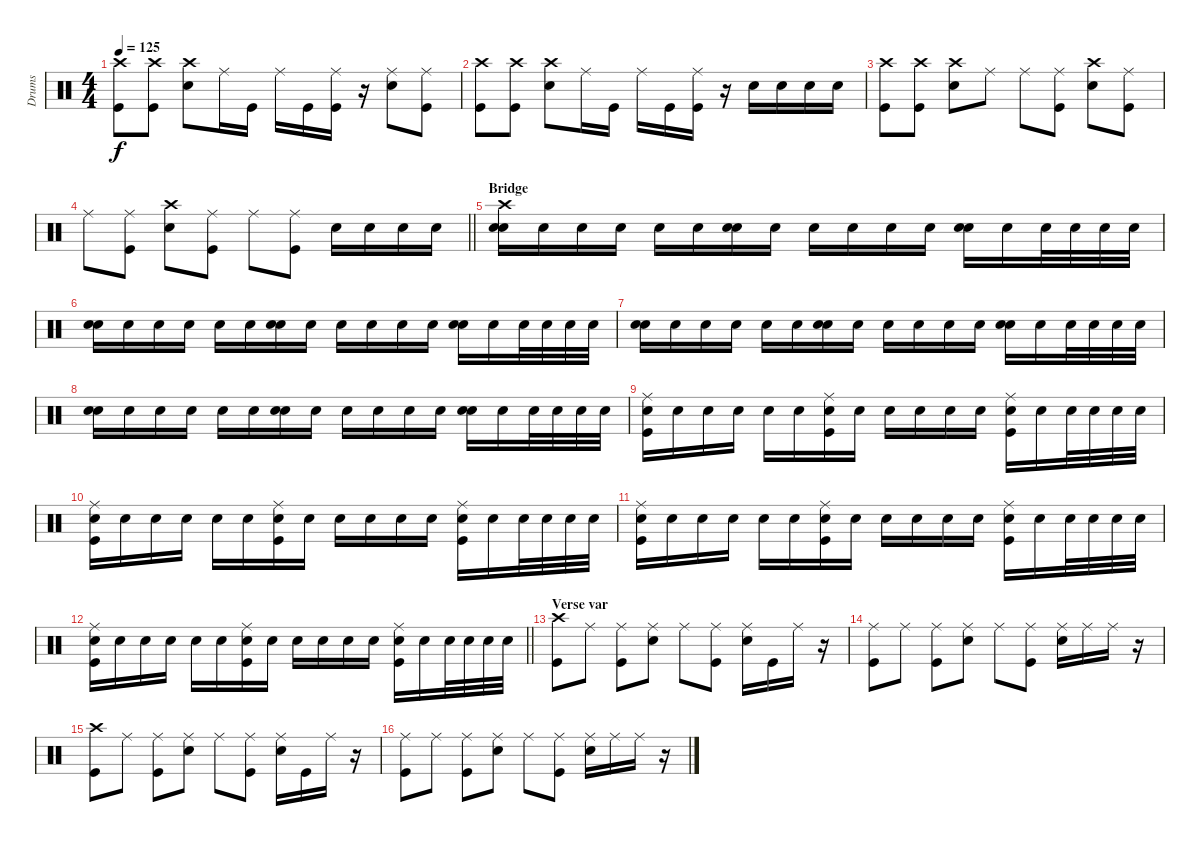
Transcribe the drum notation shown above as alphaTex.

\track ("Drums" "Drums") {instrument percussion}
\staff {score}
\articulation defaults
\ts (4 4)
\tempo 125
\clef neutral
\ks c
("Crash high (hit)" "Kick (hit)").8{dy f} ("Crash high (hit)" "Kick (hit)").8 ("Snare (hit) 2" "Crash high (hit)").8 "Ride (middle)".16 "Kick (hit)".16 "Ride (middle)".16 "Kick (hit)".16 ("Kick (hit)" "Ride (middle)").16 r.16 ("Snare (hit) 2" "Ride (middle)").8 ("Ride (middle)" "Kick (hit)").8 |
("Crash high (hit)" "Kick (hit)").8 ("Crash high (hit)" "Kick (hit)").8 ("Snare (hit) 2" "Crash high (hit)").8 "Ride (middle)".16 "Kick (hit)".16 "Ride (middle)".16 "Kick (hit)".16 ("Kick (hit)" "Ride (middle)").16 r.16 "Snare (hit) 2".16 "Snare (hit) 2".16 "Snare (hit) 2".16 "Snare (hit) 2".16 |
("Crash high (hit)" "Kick (hit)").8 ("Crash high (hit)" "Kick (hit)").8 ("Snare (hit) 2" "Crash high (hit)").8 "Ride (middle)".8 "Ride (middle)".8 ("Ride (middle)" "Kick (hit)").8 ("Snare (hit) 2" "Crash high (hit)").8 ("Ride (middle)" "Kick (hit)").8 |
\barLineRight lightlight "Ride (middle)".8
("Ride (middle)" "Kick (hit)").8 ("Snare (hit) 2" "Crash high (hit)").8 ("Kick (hit)" "Ride (middle)").8 "Ride (middle)".8 ("Ride (middle)" "Kick (hit)").8 "Snare (hit) 2".16 "Snare (hit) 2".16 "Snare (hit) 2".16 "Snare (hit) 2".16 |
\section ("" "Bridge")
("Crash high (hit)" "Snare (hit) 2" "Snare (hit) 2").16{volume 11} "Snare (hit) 2".16 "Snare (hit) 2".16 "Snare (hit) 2".16 "Snare (hit) 2".16 "Snare (hit) 2".16 ("Snare (hit) 2" "Snare (hit) 2").16 "Snare (hit) 2".16 "Snare (hit) 2".16 "Snare (hit) 2".16 "Snare (hit) 2".16 "Snare (hit) 2".16 ("Snare (hit) 2" "Snare (hit) 2").16 "Snare (hit) 2".16 "Snare (hit) 2".32 "Snare (hit) 2".32 "Snare (hit) 2".32 "Snare (hit) 2".32 |
("Snare (hit) 2" "Snare (hit) 2").16 "Snare (hit) 2".16 "Snare (hit) 2".16 "Snare (hit) 2".16 "Snare (hit) 2".16 "Snare (hit) 2".16 ("Snare (hit) 2" "Snare (hit) 2").16 "Snare (hit) 2".16 "Snare (hit) 2".16 "Snare (hit) 2".16 "Snare (hit) 2".16 "Snare (hit) 2".16 ("Snare (hit) 2" "Snare (hit) 2").16 "Snare (hit) 2".16 "Snare (hit) 2".32 "Snare (hit) 2".32 "Snare (hit) 2".32 "Snare (hit) 2".32 |
("Snare (hit) 2" "Snare (hit) 2").16 "Snare (hit) 2".16 "Snare (hit) 2".16 "Snare (hit) 2".16 "Snare (hit) 2".16 "Snare (hit) 2".16 ("Snare (hit) 2" "Snare (hit) 2").16 "Snare (hit) 2".16 "Snare (hit) 2".16 "Snare (hit) 2".16 "Snare (hit) 2".16 "Snare (hit) 2".16 ("Snare (hit) 2" "Snare (hit) 2").16 "Snare (hit) 2".16 "Snare (hit) 2".32 "Snare (hit) 2".32 "Snare (hit) 2".32 "Snare (hit) 2".32 |
("Snare (hit) 2" "Snare (hit) 2").16 "Snare (hit) 2".16 "Snare (hit) 2".16 "Snare (hit) 2".16 "Snare (hit) 2".16 "Snare (hit) 2".16 ("Snare (hit) 2" "Snare (hit) 2").16 "Snare (hit) 2".16 "Snare (hit) 2".16 "Snare (hit) 2".16 "Snare (hit) 2".16 "Snare (hit) 2".16 ("Snare (hit) 2" "Snare (hit) 2").16 "Snare (hit) 2".16 "Snare (hit) 2".32 "Snare (hit) 2".32 "Snare (hit) 2".32 "Snare (hit) 2".32 |
("Snare (hit) 2" "Kick (hit)" "Ride (middle)").16 "Snare (hit) 2".16 "Snare (hit) 2".16 "Snare (hit) 2".16 "Snare (hit) 2".16 "Snare (hit) 2".16 ("Snare (hit) 2" "Kick (hit)" "Ride (middle)").16 "Snare (hit) 2".16 "Snare (hit) 2".16 "Snare (hit) 2".16 "Snare (hit) 2".16 "Snare (hit) 2".16 ("Snare (hit) 2" "Kick (hit)" "Ride (middle)").16 "Snare (hit) 2".16 "Snare (hit) 2".32 "Snare (hit) 2".32 "Snare (hit) 2".32 "Snare (hit) 2".32 |
("Snare (hit) 2" "Kick (hit)" "Ride (middle)").16 "Snare (hit) 2".16 "Snare (hit) 2".16 "Snare (hit) 2".16 "Snare (hit) 2".16 "Snare (hit) 2".16 ("Snare (hit) 2" "Kick (hit)" "Ride (middle)").16 "Snare (hit) 2".16 "Snare (hit) 2".16 "Snare (hit) 2".16 "Snare (hit) 2".16 "Snare (hit) 2".16 ("Snare (hit) 2" "Kick (hit)" "Ride (middle)").16 "Snare (hit) 2".16 "Snare (hit) 2".32 "Snare (hit) 2".32 "Snare (hit) 2".32 "Snare (hit) 2".32 |
("Snare (hit) 2" "Kick (hit)" "Ride (middle)").16 "Snare (hit) 2".16 "Snare (hit) 2".16 "Snare (hit) 2".16 "Snare (hit) 2".16 "Snare (hit) 2".16 ("Snare (hit) 2" "Kick (hit)" "Ride (middle)").16 "Snare (hit) 2".16 "Snare (hit) 2".16 "Snare (hit) 2".16 "Snare (hit) 2".16 "Snare (hit) 2".16 ("Snare (hit) 2" "Kick (hit)" "Ride (middle)").16 "Snare (hit) 2".16 "Snare (hit) 2".32 "Snare (hit) 2".32 "Snare (hit) 2".32 "Snare (hit) 2".32 |
\barLineRight lightlight
("Snare (hit) 2" "Kick (hit)" "Ride (middle)").16 "Snare (hit) 2".16 "Snare (hit) 2".16 "Snare (hit) 2".16 "Snare (hit) 2".16 "Snare (hit) 2".16 ("Snare (hit) 2" "Kick (hit)" "Ride (middle)").16 "Snare (hit) 2".16 "Snare (hit) 2".16 "Snare (hit) 2".16 "Snare (hit) 2".16 "Snare (hit) 2".16 ("Snare (hit) 2" "Kick (hit)" "Ride (middle)").16 "Snare (hit) 2".16 "Snare (hit) 2".32 "Snare (hit) 2".32 "Snare (hit) 2".32 "Snare (hit) 2".32 |
\section ("" "Verse var")
("Crash high (hit)" "Kick (hit)").8 "Ride (middle)".8 ("Ride (middle)" "Kick (hit)").8 ("Ride (middle)" "Snare (hit) 2").8 "Ride (middle)".8 ("Ride (middle)" "Kick (hit)").8 ("Ride (middle)" "Snare (hit) 2").16 "Kick (hit)".16 "Ride (middle)".16 r.16 |
("Ride (middle)" "Kick (hit)").8 "Ride (middle)".8 ("Ride (middle)" "Kick (hit)").8 ("Ride (middle)" "Snare (hit) 2").8 "Ride (middle)".8 ("Ride (middle)" "Kick (hit)").8 ("Ride (middle)" "Snare (hit) 2").16 "Ride (middle)".16 "Ride (middle)".16 r.16 |
("Crash high (hit)" "Kick (hit)").8 "Ride (middle)".8 ("Ride (middle)" "Kick (hit)").8 ("Ride (middle)" "Snare (hit) 2").8 "Ride (middle)".8 ("Ride (middle)" "Kick (hit)").8 ("Ride (middle)" "Snare (hit) 2").16 "Kick (hit)".16 "Ride (middle)".16 r.16 |
("Ride (middle)" "Kick (hit)").8 "Ride (middle)".8 ("Ride (middle)" "Kick (hit)").8 ("Ride (middle)" "Snare (hit) 2").8 "Ride (middle)".8 ("Ride (middle)" "Kick (hit)").8 ("Ride (middle)" "Snare (hit) 2").16 "Ride (middle)".16 "Ride (middle)".16 r.16
